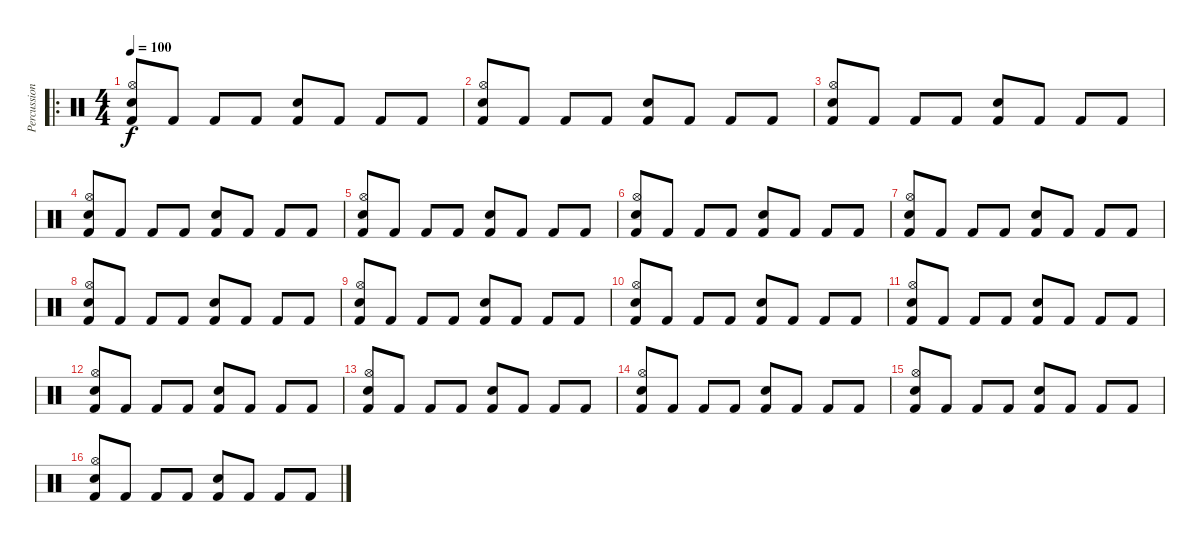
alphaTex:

\track ("Percussioni" "Percussion") {instrument percussion}
\staff {score}
\articulation defaults
\ro
\ts (4 4)
\tempo 100
\clef neutral
\ks c
("Snare (hit) 2" "Hi-Hat (open)" "Kick (hit) 2").8{dy f} "Kick (hit) 2".8 "Kick (hit) 2".8 "Kick (hit) 2".8 ("Snare (hit) 2" "Kick (hit) 2").8 "Kick (hit) 2".8 "Kick (hit) 2".8 "Kick (hit) 2".8 |
("Snare (hit) 2" "Hi-Hat (open)" "Kick (hit) 2").8 "Kick (hit) 2".8 "Kick (hit) 2".8 "Kick (hit) 2".8 ("Snare (hit) 2" "Kick (hit) 2").8 "Kick (hit) 2".8 "Kick (hit) 2".8 "Kick (hit) 2".8 |
("Snare (hit) 2" "Hi-Hat (open)" "Kick (hit) 2").8 "Kick (hit) 2".8 "Kick (hit) 2".8 "Kick (hit) 2".8 ("Snare (hit) 2" "Kick (hit) 2").8 "Kick (hit) 2".8 "Kick (hit) 2".8 "Kick (hit) 2".8 |
("Snare (hit) 2" "Hi-Hat (open)" "Kick (hit) 2").8 "Kick (hit) 2".8 "Kick (hit) 2".8 "Kick (hit) 2".8 ("Snare (hit) 2" "Kick (hit) 2").8 "Kick (hit) 2".8 "Kick (hit) 2".8 "Kick (hit) 2".8 |
("Snare (hit) 2" "Hi-Hat (open)" "Kick (hit) 2").8 "Kick (hit) 2".8 "Kick (hit) 2".8 "Kick (hit) 2".8 ("Snare (hit) 2" "Kick (hit) 2").8 "Kick (hit) 2".8 "Kick (hit) 2".8 "Kick (hit) 2".8 |
("Snare (hit) 2" "Hi-Hat (open)" "Kick (hit) 2").8 "Kick (hit) 2".8 "Kick (hit) 2".8 "Kick (hit) 2".8 ("Snare (hit) 2" "Kick (hit) 2").8 "Kick (hit) 2".8 "Kick (hit) 2".8 "Kick (hit) 2".8 |
("Snare (hit) 2" "Hi-Hat (open)" "Kick (hit) 2").8 "Kick (hit) 2".8 "Kick (hit) 2".8 "Kick (hit) 2".8 ("Snare (hit) 2" "Kick (hit) 2").8 "Kick (hit) 2".8 "Kick (hit) 2".8 "Kick (hit) 2".8 |
("Snare (hit) 2" "Hi-Hat (open)" "Kick (hit) 2").8 "Kick (hit) 2".8 "Kick (hit) 2".8 "Kick (hit) 2".8 ("Snare (hit) 2" "Kick (hit) 2").8 "Kick (hit) 2".8 "Kick (hit) 2".8 "Kick (hit) 2".8 |
("Snare (hit) 2" "Hi-Hat (open)" "Kick (hit) 2").8 "Kick (hit) 2".8 "Kick (hit) 2".8 "Kick (hit) 2".8 ("Snare (hit) 2" "Kick (hit) 2").8 "Kick (hit) 2".8 "Kick (hit) 2".8 "Kick (hit) 2".8 |
("Snare (hit) 2" "Hi-Hat (open)" "Kick (hit) 2").8 "Kick (hit) 2".8 "Kick (hit) 2".8 "Kick (hit) 2".8 ("Snare (hit) 2" "Kick (hit) 2").8 "Kick (hit) 2".8 "Kick (hit) 2".8 "Kick (hit) 2".8 |
("Snare (hit) 2" "Hi-Hat (open)" "Kick (hit) 2").8 "Kick (hit) 2".8 "Kick (hit) 2".8 "Kick (hit) 2".8 ("Snare (hit) 2" "Kick (hit) 2").8 "Kick (hit) 2".8 "Kick (hit) 2".8 "Kick (hit) 2".8 |
("Snare (hit) 2" "Hi-Hat (open)" "Kick (hit) 2").8 "Kick (hit) 2".8 "Kick (hit) 2".8 "Kick (hit) 2".8 ("Snare (hit) 2" "Kick (hit) 2").8 "Kick (hit) 2".8 "Kick (hit) 2".8 "Kick (hit) 2".8 |
("Snare (hit) 2" "Hi-Hat (open)" "Kick (hit) 2").8 "Kick (hit) 2".8 "Kick (hit) 2".8 "Kick (hit) 2".8 ("Snare (hit) 2" "Kick (hit) 2").8 "Kick (hit) 2".8 "Kick (hit) 2".8 "Kick (hit) 2".8 |
("Snare (hit) 2" "Hi-Hat (open)" "Kick (hit) 2").8 "Kick (hit) 2".8 "Kick (hit) 2".8 "Kick (hit) 2".8 ("Snare (hit) 2" "Kick (hit) 2").8 "Kick (hit) 2".8 "Kick (hit) 2".8 "Kick (hit) 2".8 |
("Snare (hit) 2" "Hi-Hat (open)" "Kick (hit) 2").8 "Kick (hit) 2".8 "Kick (hit) 2".8 "Kick (hit) 2".8 ("Snare (hit) 2" "Kick (hit) 2").8 "Kick (hit) 2".8 "Kick (hit) 2".8 "Kick (hit) 2".8 |
("Snare (hit) 2" "Hi-Hat (open)" "Kick (hit) 2").8 "Kick (hit) 2".8 "Kick (hit) 2".8 "Kick (hit) 2".8 ("Snare (hit) 2" "Kick (hit) 2").8 "Kick (hit) 2".8 "Kick (hit) 2".8 "Kick (hit) 2".8
